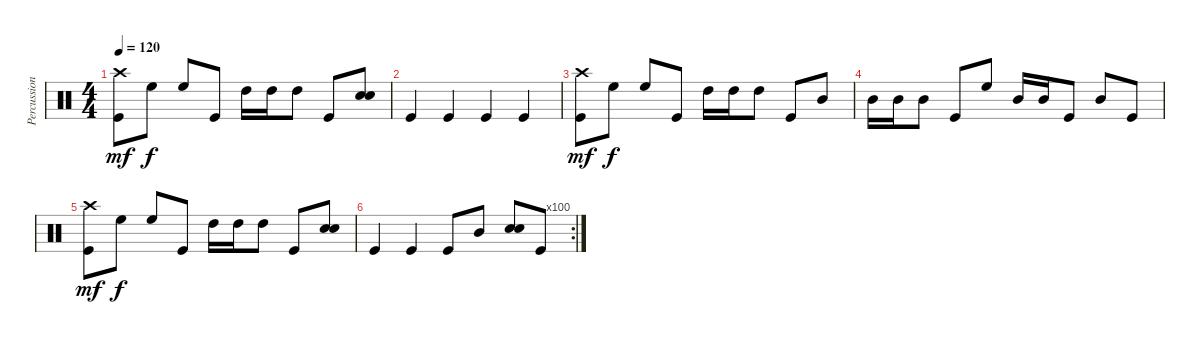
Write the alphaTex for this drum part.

\track ("Percussion" "Percussion") {instrument percussion}
\staff {score}
\articulation defaults
\ts (4 4)
\tempo 120
\clef neutral
\ks c
("Crash high (hit)" "Kick (hit)").8{dy mf} "High Floor Tom (hit)".8{dy f} "High Floor Tom (hit)".8 "Kick (hit)".8 "High Tom (hit)".16 "High Tom (hit)".16 "High Tom (hit)".8 "Kick (hit)".8 ("Electric Snare (hit)" "Electric Snare (hit)").8{bd 60} |
"Kick (hit)".4 "Kick (hit)".4 "Kick (hit)".4 "Kick (hit)".4 |
("Crash high (hit)" "Kick (hit)").8{dy mf} "High Floor Tom (hit)".8{dy f} "High Floor Tom (hit)".8 "Kick (hit)".8 "High Tom (hit)".16 "High Tom (hit)".16 "High Tom (hit)".8 "Kick (hit)".8 "Mid Tom (hit)".8 |
"Mid Tom (hit)".16 "Mid Tom (hit)".16 "Mid Tom (hit)".8 "Kick (hit)".8 "High Floor Tom (hit)".8 "Mid Tom (hit)".16 "Mid Tom (hit)".16 "Kick (hit)".8 "Mid Tom (hit)".8 "Kick (hit)".8 |
("Crash high (hit)" "Kick (hit)").8{dy mf} "High Floor Tom (hit)".8{dy f} "High Floor Tom (hit)".8 "Kick (hit)".8 "High Tom (hit)".16 "High Tom (hit)".16 "High Tom (hit)".8 "Kick (hit)".8 ("Electric Snare (hit)" "Electric Snare (hit)").8{bd 60} |
\rc 100 "Kick (hit)".4 "Kick (hit)".4 "Kick (hit)".8 "Mid Tom (hit)".8
("Electric Snare (hit)" "Electric Snare (hit)").8{bd 60} "Kick (hit)".8
